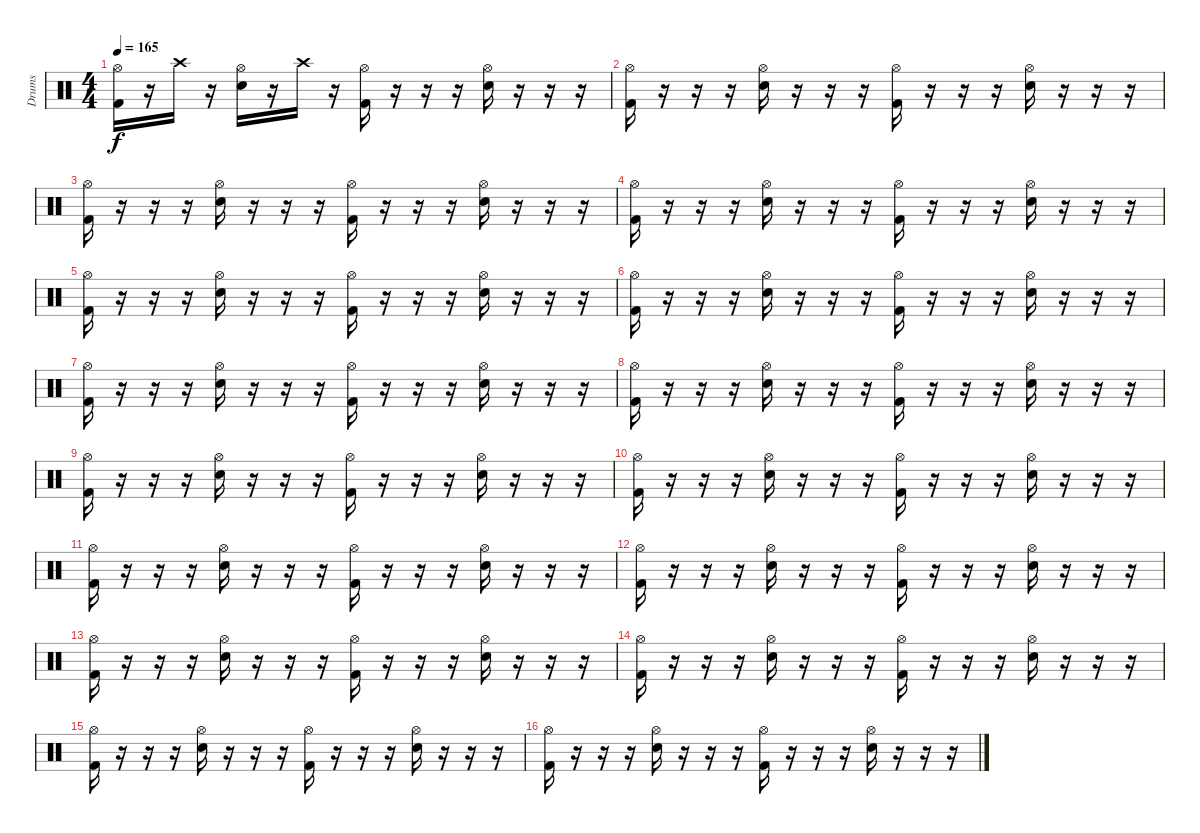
\track ("Drums" "Drums") {instrument percussion}
\staff {score}
\articulation defaults
\ts (4 4)
\tempo 165
\clef neutral
\ks c
("Hi-Hat (open)" "Kick (hit) 2").16{dy f} r.16 "Crash high (hit)".16 r.16 ("Hi-Hat (open)" "Electric Snare (hit)").16 r.16 "Crash high (hit)".16 r.16 ("Hi-Hat (open)" "Kick (hit) 2").16 r.16 r.16 r.16 ("Hi-Hat (open)" "Electric Snare (hit)").16 r.16 r.16 r.16 |
("Hi-Hat (open)" "Kick (hit) 2").16 r.16 r.16 r.16 ("Hi-Hat (open)" "Electric Snare (hit)").16 r.16 r.16 r.16 ("Hi-Hat (open)" "Kick (hit) 2").16 r.16 r.16 r.16 ("Hi-Hat (open)" "Electric Snare (hit)").16 r.16 r.16 r.16 |
("Hi-Hat (open)" "Kick (hit) 2").16 r.16 r.16 r.16 ("Hi-Hat (open)" "Electric Snare (hit)").16 r.16 r.16 r.16 ("Hi-Hat (open)" "Kick (hit) 2").16 r.16 r.16 r.16 ("Hi-Hat (open)" "Electric Snare (hit)").16 r.16 r.16 r.16 |
("Hi-Hat (open)" "Kick (hit) 2").16 r.16 r.16 r.16 ("Hi-Hat (open)" "Electric Snare (hit)").16 r.16 r.16 r.16 ("Hi-Hat (open)" "Kick (hit) 2").16 r.16 r.16 r.16 ("Hi-Hat (open)" "Electric Snare (hit)").16 r.16 r.16 r.16 |
("Hi-Hat (open)" "Kick (hit) 2").16 r.16 r.16 r.16 ("Hi-Hat (open)" "Electric Snare (hit)").16 r.16 r.16 r.16 ("Hi-Hat (open)" "Kick (hit) 2").16 r.16 r.16 r.16 ("Hi-Hat (open)" "Electric Snare (hit)").16 r.16 r.16 r.16 |
("Hi-Hat (open)" "Kick (hit) 2").16 r.16 r.16 r.16 ("Hi-Hat (open)" "Electric Snare (hit)").16 r.16 r.16 r.16 ("Hi-Hat (open)" "Kick (hit) 2").16 r.16 r.16 r.16 ("Hi-Hat (open)" "Electric Snare (hit)").16 r.16 r.16 r.16 |
("Hi-Hat (open)" "Kick (hit) 2").16 r.16 r.16 r.16 ("Hi-Hat (open)" "Electric Snare (hit)").16 r.16 r.16 r.16 ("Hi-Hat (open)" "Kick (hit) 2").16 r.16 r.16 r.16 ("Hi-Hat (open)" "Electric Snare (hit)").16 r.16 r.16 r.16 |
("Hi-Hat (open)" "Kick (hit) 2").16 r.16 r.16 r.16 ("Hi-Hat (open)" "Electric Snare (hit)").16 r.16 r.16 r.16 ("Hi-Hat (open)" "Kick (hit) 2").16 r.16 r.16 r.16 ("Hi-Hat (open)" "Electric Snare (hit)").16 r.16 r.16 r.16 |
("Hi-Hat (open)" "Kick (hit) 2").16 r.16 r.16 r.16 ("Hi-Hat (open)" "Electric Snare (hit)").16 r.16 r.16 r.16 ("Hi-Hat (open)" "Kick (hit) 2").16 r.16 r.16 r.16 ("Hi-Hat (open)" "Electric Snare (hit)").16 r.16 r.16 r.16 |
("Hi-Hat (open)" "Kick (hit) 2").16 r.16 r.16 r.16 ("Hi-Hat (open)" "Electric Snare (hit)").16 r.16 r.16 r.16 ("Hi-Hat (open)" "Kick (hit) 2").16 r.16 r.16 r.16 ("Hi-Hat (open)" "Electric Snare (hit)").16 r.16 r.16 r.16 |
("Hi-Hat (open)" "Kick (hit) 2").16 r.16 r.16 r.16 ("Hi-Hat (open)" "Electric Snare (hit)").16 r.16 r.16 r.16 ("Hi-Hat (open)" "Kick (hit) 2").16 r.16 r.16 r.16 ("Hi-Hat (open)" "Electric Snare (hit)").16 r.16 r.16 r.16 |
("Hi-Hat (open)" "Kick (hit) 2").16 r.16 r.16 r.16 ("Hi-Hat (open)" "Electric Snare (hit)").16 r.16 r.16 r.16 ("Hi-Hat (open)" "Kick (hit) 2").16 r.16 r.16 r.16 ("Hi-Hat (open)" "Electric Snare (hit)").16 r.16 r.16 r.16 |
("Hi-Hat (open)" "Kick (hit) 2").16 r.16 r.16 r.16 ("Hi-Hat (open)" "Electric Snare (hit)").16 r.16 r.16 r.16 ("Hi-Hat (open)" "Kick (hit) 2").16 r.16 r.16 r.16 ("Hi-Hat (open)" "Electric Snare (hit)").16 r.16 r.16 r.16 |
("Hi-Hat (open)" "Kick (hit) 2").16 r.16 r.16 r.16 ("Hi-Hat (open)" "Electric Snare (hit)").16 r.16 r.16 r.16 ("Hi-Hat (open)" "Kick (hit) 2").16 r.16 r.16 r.16 ("Hi-Hat (open)" "Electric Snare (hit)").16 r.16 r.16 r.16 |
("Hi-Hat (open)" "Kick (hit) 2").16 r.16 r.16 r.16 ("Hi-Hat (open)" "Electric Snare (hit)").16 r.16 r.16 r.16 ("Hi-Hat (open)" "Kick (hit) 2").16 r.16 r.16 r.16 ("Hi-Hat (open)" "Electric Snare (hit)").16 r.16 r.16 r.16 |
("Hi-Hat (open)" "Kick (hit) 2").16 r.16 r.16 r.16 ("Hi-Hat (open)" "Electric Snare (hit)").16 r.16 r.16 r.16 ("Hi-Hat (open)" "Kick (hit) 2").16 r.16 r.16 r.16 ("Hi-Hat (open)" "Electric Snare (hit)").16 r.16 r.16 r.16
